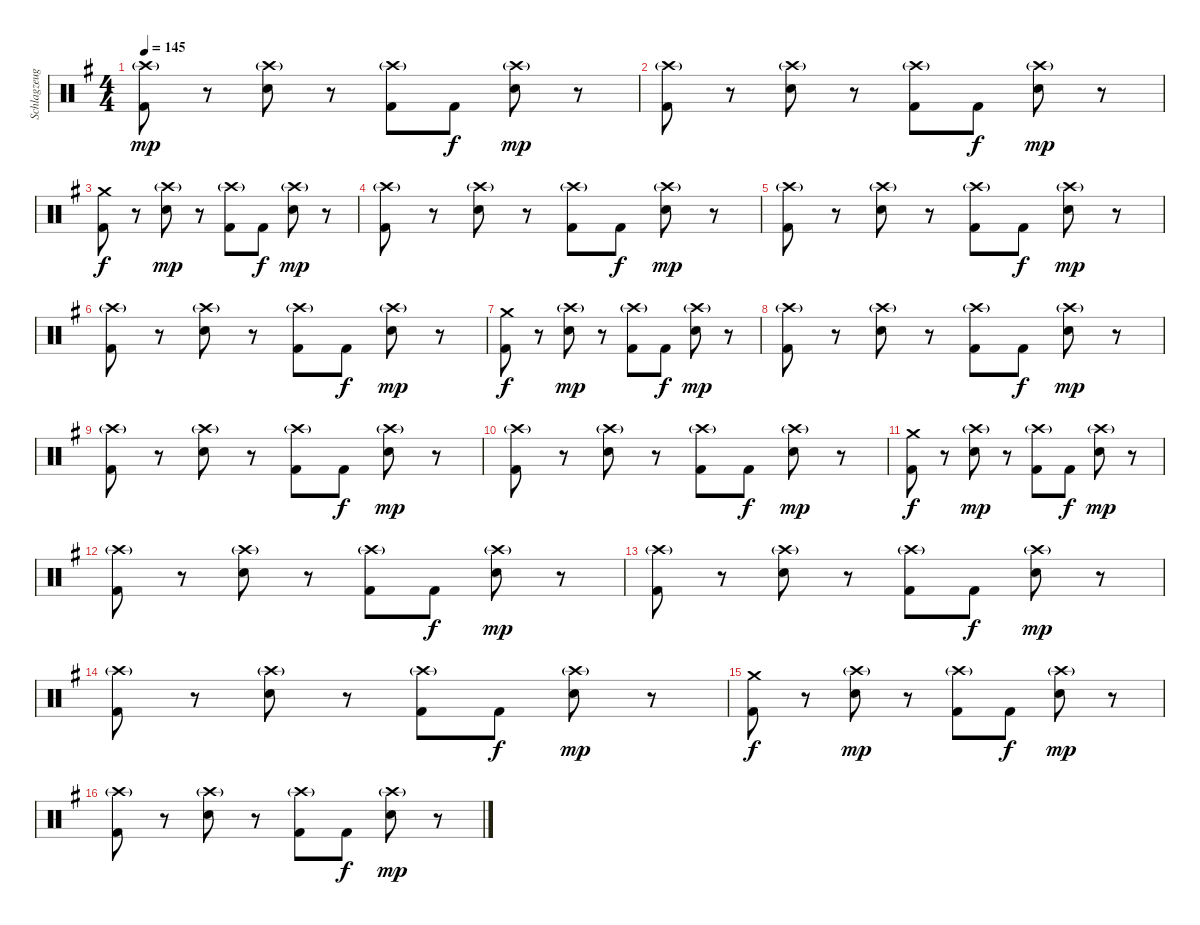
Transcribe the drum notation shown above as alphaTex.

\track ("Schlagzeug - Bela B. Felsenheimer" "Schlagzeug") {instrument percussion}
\staff {score}
\articulation defaults
\ts (4 4)
\tempo 145
\clef neutral
\ks g
("Crash high (hit)"{g} "Kick (hit) 2").8{dy mp} r.8 ("Crash high (hit)"{g} "Snare (hit) 2").8 r.8 ("Crash high (hit)"{g} "Kick (hit) 2").8 "Kick (hit) 2".8{dy f} ("Crash high (hit)"{g} "Snare (hit) 2").8{dy mp} r.8 |
("Crash high (hit)"{g} "Kick (hit) 2").8 r.8 ("Crash high (hit)"{g} "Snare (hit) 2").8 r.8 ("Crash high (hit)"{g} "Kick (hit) 2").8 "Kick (hit) 2".8{dy f} ("Crash high (hit)"{g} "Snare (hit) 2").8{dy mp} r.8 |
("Crash medium (hit)" "Kick (hit) 2").8{dy f} r.8 ("Crash high (hit)"{g} "Snare (hit) 2").8{dy mp} r.8 ("Crash high (hit)"{g} "Kick (hit) 2").8 "Kick (hit) 2".8{dy f} ("Crash high (hit)"{g} "Snare (hit) 2").8{dy mp} r.8 |
("Crash high (hit)"{g} "Kick (hit) 2").8 r.8 ("Crash high (hit)"{g} "Snare (hit) 2").8 r.8 ("Crash high (hit)"{g} "Kick (hit) 2").8 "Kick (hit) 2".8{dy f} ("Crash high (hit)"{g} "Snare (hit) 2").8{dy mp} r.8 |
("Crash high (hit)"{g} "Kick (hit) 2").8 r.8 ("Crash high (hit)"{g} "Snare (hit) 2").8 r.8 ("Crash high (hit)"{g} "Kick (hit) 2").8 "Kick (hit) 2".8{dy f} ("Crash high (hit)"{g} "Snare (hit) 2").8{dy mp} r.8 |
("Crash high (hit)"{g} "Kick (hit) 2").8 r.8 ("Crash high (hit)"{g} "Snare (hit) 2").8 r.8 ("Crash high (hit)"{g} "Kick (hit) 2").8 "Kick (hit) 2".8{dy f} ("Crash high (hit)"{g} "Snare (hit) 2").8{dy mp} r.8 |
("Crash medium (hit)" "Kick (hit) 2").8{dy f} r.8 ("Crash high (hit)"{g} "Snare (hit) 2").8{dy mp} r.8 ("Crash high (hit)"{g} "Kick (hit) 2").8 "Kick (hit) 2".8{dy f} ("Crash high (hit)"{g} "Snare (hit) 2").8{dy mp} r.8 |
("Crash high (hit)"{g} "Kick (hit) 2").8 r.8 ("Crash high (hit)"{g} "Snare (hit) 2").8 r.8 ("Crash high (hit)"{g} "Kick (hit) 2").8 "Kick (hit) 2".8{dy f} ("Crash high (hit)"{g} "Snare (hit) 2").8{dy mp} r.8 |
("Crash high (hit)"{g} "Kick (hit) 2").8 r.8 ("Crash high (hit)"{g} "Snare (hit) 2").8 r.8 ("Crash high (hit)"{g} "Kick (hit) 2").8 "Kick (hit) 2".8{dy f} ("Crash high (hit)"{g} "Snare (hit) 2").8{dy mp} r.8 |
("Crash high (hit)"{g} "Kick (hit) 2").8 r.8 ("Crash high (hit)"{g} "Snare (hit) 2").8 r.8 ("Crash high (hit)"{g} "Kick (hit) 2").8 "Kick (hit) 2".8{dy f} ("Crash high (hit)"{g} "Snare (hit) 2").8{dy mp} r.8 |
("Crash medium (hit)" "Kick (hit) 2").8{dy f} r.8 ("Crash high (hit)"{g} "Snare (hit) 2").8{dy mp} r.8 ("Crash high (hit)"{g} "Kick (hit) 2").8 "Kick (hit) 2".8{dy f} ("Crash high (hit)"{g} "Snare (hit) 2").8{dy mp} r.8 |
("Crash high (hit)"{g} "Kick (hit) 2").8 r.8 ("Crash high (hit)"{g} "Snare (hit) 2").8 r.8 ("Crash high (hit)"{g} "Kick (hit) 2").8 "Kick (hit) 2".8{dy f} ("Crash high (hit)"{g} "Snare (hit) 2").8{dy mp} r.8 |
("Crash high (hit)"{g} "Kick (hit) 2").8 r.8 ("Crash high (hit)"{g} "Snare (hit) 2").8 r.8 ("Crash high (hit)"{g} "Kick (hit) 2").8 "Kick (hit) 2".8{dy f} ("Crash high (hit)"{g} "Snare (hit) 2").8{dy mp} r.8 |
("Crash high (hit)"{g} "Kick (hit) 2").8 r.8 ("Crash high (hit)"{g} "Snare (hit) 2").8 r.8 ("Crash high (hit)"{g} "Kick (hit) 2").8 "Kick (hit) 2".8{dy f} ("Crash high (hit)"{g} "Snare (hit) 2").8{dy mp} r.8 |
("Crash medium (hit)" "Kick (hit) 2").8{dy f} r.8 ("Crash high (hit)"{g} "Snare (hit) 2").8{dy mp} r.8 ("Crash high (hit)"{g} "Kick (hit) 2").8 "Kick (hit) 2".8{dy f} ("Crash high (hit)"{g} "Snare (hit) 2").8{dy mp} r.8 |
("Crash high (hit)"{g} "Kick (hit) 2").8 r.8 ("Crash high (hit)"{g} "Snare (hit) 2").8 r.8 ("Crash high (hit)"{g} "Kick (hit) 2").8 "Kick (hit) 2".8{dy f} ("Crash high (hit)"{g} "Snare (hit) 2").8{dy mp} r.8
